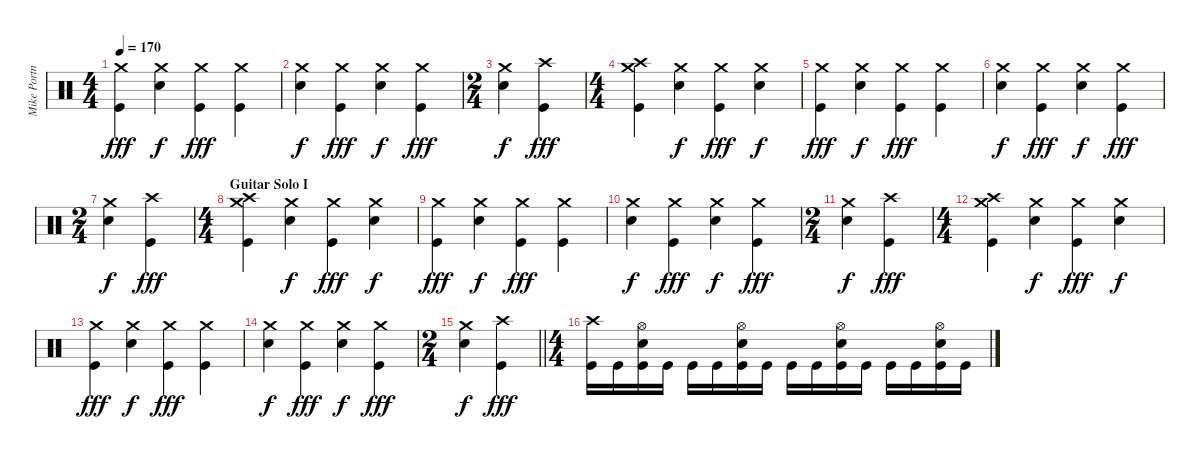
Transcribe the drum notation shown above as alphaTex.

\track ("Mike Portnoy" "Mike Portn") {instrument percussion}
\staff {score}
\articulation defaults
\ts (4 4)
\tempo 170
\clef neutral
\ks c
("Crash medium (hit)" "Kick (hit)").4{dy fff} ("Crash medium (hit)" "Electric Snare (hit)").4{dy f} ("Crash medium (hit)" "Kick (hit)").4{dy fff} ("Crash medium (hit)" "Kick (hit)").4 |
("Crash medium (hit)" "Electric Snare (hit)").4{dy f} ("Crash medium (hit)" "Kick (hit)").4{dy fff} ("Crash medium (hit)" "Electric Snare (hit)").4{dy f} ("Crash medium (hit)" "Kick (hit)").4{dy fff} |
\ts (2 4)
("Crash medium (hit)" "Electric Snare (hit)").4{dy f} ("Crash high (hit)" "Kick (hit)").4{dy fff} |
\ts (4 4)
("Crash high (hit)" "Crash medium (hit)" "Kick (hit)").4 ("Crash medium (hit)" "Electric Snare (hit)").4{dy f} ("Crash medium (hit)" "Kick (hit)").4{dy fff} ("Crash medium (hit)" "Electric Snare (hit)").4{dy f} |
("Crash medium (hit)" "Kick (hit)").4{dy fff} ("Crash medium (hit)" "Electric Snare (hit)").4{dy f} ("Crash medium (hit)" "Kick (hit)").4{dy fff} ("Crash medium (hit)" "Kick (hit)").4 |
("Crash medium (hit)" "Electric Snare (hit)").4{dy f} ("Crash medium (hit)" "Kick (hit)").4{dy fff} ("Crash medium (hit)" "Electric Snare (hit)").4{dy f} ("Crash medium (hit)" "Kick (hit)").4{dy fff} |
\ts (2 4)
("Crash medium (hit)" "Electric Snare (hit)").4{dy f} ("Crash high (hit)" "Kick (hit)").4{dy fff} |
\ts (4 4)
\section ("" "Guitar Solo I")
("Crash high (hit)" "Crash medium (hit)" "Kick (hit)").4 ("Crash medium (hit)" "Electric Snare (hit)").4{dy f} ("Crash medium (hit)" "Kick (hit)").4{dy fff} ("Crash medium (hit)" "Electric Snare (hit)").4{dy f} |
("Crash medium (hit)" "Kick (hit)").4{dy fff} ("Crash medium (hit)" "Electric Snare (hit)").4{dy f} ("Crash medium (hit)" "Kick (hit)").4{dy fff} ("Crash medium (hit)" "Kick (hit)").4 |
("Crash medium (hit)" "Electric Snare (hit)").4{dy f} ("Crash medium (hit)" "Kick (hit)").4{dy fff} ("Crash medium (hit)" "Electric Snare (hit)").4{dy f} ("Crash medium (hit)" "Kick (hit)").4{dy fff} |
\ts (2 4)
("Crash medium (hit)" "Electric Snare (hit)").4{dy f} ("Crash high (hit)" "Kick (hit)").4{dy fff} |
\ts (4 4)
("Crash high (hit)" "Crash medium (hit)" "Kick (hit)").4 ("Crash medium (hit)" "Electric Snare (hit)").4{dy f} ("Crash medium (hit)" "Kick (hit)").4{dy fff} ("Crash medium (hit)" "Electric Snare (hit)").4{dy f} |
("Crash medium (hit)" "Kick (hit)").4{dy fff} ("Crash medium (hit)" "Electric Snare (hit)").4{dy f} ("Crash medium (hit)" "Kick (hit)").4{dy fff} ("Crash medium (hit)" "Kick (hit)").4 |
("Crash medium (hit)" "Electric Snare (hit)").4{dy f} ("Crash medium (hit)" "Kick (hit)").4{dy fff} ("Crash medium (hit)" "Electric Snare (hit)").4{dy f} ("Crash medium (hit)" "Kick (hit)").4{dy fff} |
\ts (2 4)
\barLineRight lightlight
("Crash medium (hit)" "Electric Snare (hit)").4{dy f} ("Crash high (hit)" "Kick (hit)").4{dy fff} |
\ts (4 4)
("Crash high (hit)" "Kick (hit)").16 "Kick (hit)".16 ("Hi-Hat (open)" "Electric Snare (hit)" "Kick (hit)").16 "Kick (hit)".16 "Kick (hit)".16 "Kick (hit)".16 ("Hi-Hat (open)" "Electric Snare (hit)" "Kick (hit)").16 "Kick (hit)".16 "Kick (hit)".16 "Kick (hit)".16 ("Hi-Hat (open)" "Electric Snare (hit)" "Kick (hit)").16 "Kick (hit)".16 "Kick (hit)".16 "Kick (hit)".16 ("Hi-Hat (open)" "Electric Snare (hit)" "Kick (hit)").16 "Kick (hit)".16
